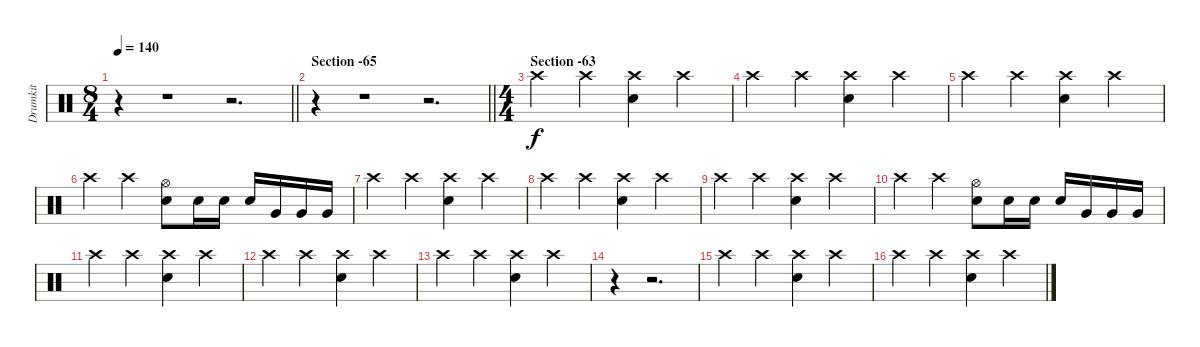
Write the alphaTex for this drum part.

\track ("Drumkit" "Drumkit") {instrument percussion}
\staff {score}
\articulation defaults
\ts (8 4)
\tempo 140
\clef neutral
\barLineRight lightlight
\ks c
r.4{dy f} r.1 r.2{d} |
\section ("" "Section -65")
\barLineRight lightlight
r.4 r.1 r.2{d} |
\ts (4 4)
\section ("" "Section -63")
"Crash high (hit)".4 "Crash high (hit)".4 ("Crash high (hit)" "Snare (hit) 2").4 "Crash high (hit)".4 |
"Crash high (hit)".4 "Crash high (hit)".4 ("Crash high (hit)" "Snare (hit) 2").4 "Crash high (hit)".4 |
"Crash high (hit)".4 "Crash high (hit)".4 ("Crash high (hit)" "Snare (hit) 2").4 "Crash high (hit)".4 |
"Crash high (hit)".4 "Crash high (hit)".4 ("Hi-Hat (open)" "Snare (hit) 2").8 "Snare (hit) 2".16 "Snare (hit) 2".16 "Snare (hit) 2".16 "Very Low Tom (hit)".16 "Very Low Tom (hit)".16 "Very Low Tom (hit)".16 |
"Crash high (hit)".4 "Crash high (hit)".4 ("Crash high (hit)" "Snare (hit) 2").4 "Crash high (hit)".4 |
"Crash high (hit)".4 "Crash high (hit)".4 ("Crash high (hit)" "Snare (hit) 2").4 "Crash high (hit)".4 |
"Crash high (hit)".4 "Crash high (hit)".4 ("Crash high (hit)" "Snare (hit) 2").4 "Crash high (hit)".4 |
"Crash high (hit)".4 "Crash high (hit)".4 ("Hi-Hat (open)" "Snare (hit) 2").8 "Snare (hit) 2".16 "Snare (hit) 2".16 "Snare (hit) 2".16 "Very Low Tom (hit)".16 "Very Low Tom (hit)".16 "Very Low Tom (hit)".16 |
"Crash high (hit)".4 "Crash high (hit)".4 ("Crash high (hit)" "Snare (hit) 2").4 "Crash high (hit)".4 |
"Crash high (hit)".4 "Crash high (hit)".4 ("Crash high (hit)" "Snare (hit) 2").4 "Crash high (hit)".4 |
"Crash high (hit)".4 "Crash high (hit)".4 ("Crash high (hit)" "Snare (hit) 2").4 "Crash high (hit)".4 |
r.4 r.2{d} |
"Crash high (hit)".4 "Crash high (hit)".4 ("Crash high (hit)" "Snare (hit) 2").4 "Crash high (hit)".4 |
"Crash high (hit)".4 "Crash high (hit)".4 ("Crash high (hit)" "Snare (hit) 2").4 "Crash high (hit)".4
